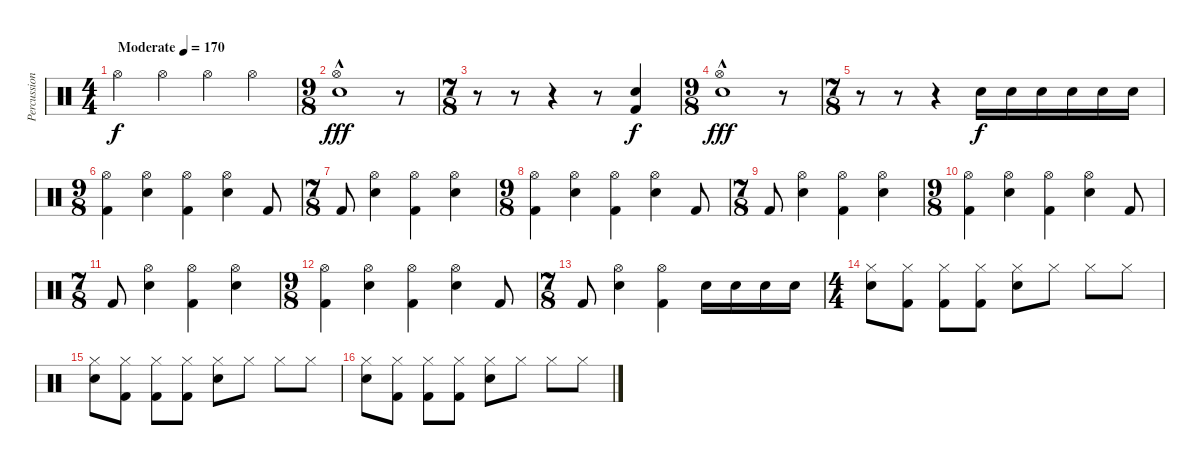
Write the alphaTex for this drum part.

\track ("Percussion" "Percussion") {instrument percussion}
\staff {score}
\articulation defaults
\ts (4 4)
\tempo (170 "Moderate")
\clef neutral
\ks c "Hi-Hat (open)".4{dy f} "Hi-Hat (open)".4 "Hi-Hat (open)".4 "Hi-Hat (open)".4
|
\ts (9 8)
("Snare (hit) 2" "Hi-Hat (open)"{hac}).1{dy fff} r.8 |
\ts (7 8)
r.8 r.8 r.4 r.8 ("Snare (hit) 2" "Kick (hit) 2").4{dy f} |
\ts (9 8)
("Snare (hit) 2" "Hi-Hat (open)"{hac}).1{dy fff} r.8 |
\ts (7 8)
r.8 r.8 r.4 "Snare (hit) 2".16{dy f} "Snare (hit) 2".16 "Snare (hit) 2".16 "Snare (hit) 2".16 "Snare (hit) 2".16 "Snare (hit) 2".16 |
\ts (9 8)
("Kick (hit) 2" "Hi-Hat (open)").4 ("Snare (hit) 2" "Hi-Hat (open)").4 ("Kick (hit) 2" "Hi-Hat (open)").4 ("Snare (hit) 2" "Hi-Hat (open)").4 "Kick (hit) 2".8 |
\ts (7 8)
"Kick (hit) 2".8 ("Snare (hit) 2" "Hi-Hat (open)").4 ("Kick (hit) 2" "Hi-Hat (open)").4 ("Snare (hit) 2" "Hi-Hat (open)").4 |
\ts (9 8)
("Kick (hit) 2" "Hi-Hat (open)").4 ("Snare (hit) 2" "Hi-Hat (open)").4 ("Kick (hit) 2" "Hi-Hat (open)").4 ("Snare (hit) 2" "Hi-Hat (open)").4 "Kick (hit) 2".8 |
\ts (7 8)
"Kick (hit) 2".8 ("Snare (hit) 2" "Hi-Hat (open)").4 ("Kick (hit) 2" "Hi-Hat (open)").4 ("Snare (hit) 2" "Hi-Hat (open)").4 |
\ts (9 8)
("Kick (hit) 2" "Hi-Hat (open)").4 ("Snare (hit) 2" "Hi-Hat (open)").4 ("Kick (hit) 2" "Hi-Hat (open)").4 ("Snare (hit) 2" "Hi-Hat (open)").4 "Kick (hit) 2".8 |
\ts (7 8)
"Kick (hit) 2".8 ("Snare (hit) 2" "Hi-Hat (open)").4 ("Kick (hit) 2" "Hi-Hat (open)").4 ("Snare (hit) 2" "Hi-Hat (open)").4 |
\ts (9 8)
("Kick (hit) 2" "Hi-Hat (open)").4 ("Snare (hit) 2" "Hi-Hat (open)").4 ("Kick (hit) 2" "Hi-Hat (open)").4 ("Snare (hit) 2" "Hi-Hat (open)").4 "Kick (hit) 2".8 |
\ts (7 8)
"Kick (hit) 2".8 ("Snare (hit) 2" "Hi-Hat (open)").4 ("Kick (hit) 2" "Hi-Hat (open)").4 "Snare (hit) 2".16 "Snare (hit) 2".16 "Snare (hit) 2".16 "Snare (hit) 2".16 |
\ts (4 4)
("Snare (hit) 2" "Hi-Hat (closed)").8 ("Kick (hit) 2" "Hi-Hat (closed)").8 ("Kick (hit) 2" "Hi-Hat (closed)").8 ("Kick (hit) 2" "Hi-Hat (closed)").8 ("Snare (hit) 2" "Hi-Hat (closed)").8 "Hi-Hat (closed)".8 "Hi-Hat (closed)".8 "Hi-Hat (closed)".8 |
("Snare (hit) 2" "Hi-Hat (closed)").8 ("Kick (hit) 2" "Hi-Hat (closed)").8 ("Kick (hit) 2" "Hi-Hat (closed)").8 ("Kick (hit) 2" "Hi-Hat (closed)").8 ("Snare (hit) 2" "Hi-Hat (closed)").8 "Hi-Hat (closed)".8 "Hi-Hat (closed)".8 "Hi-Hat (closed)".8 |
("Snare (hit) 2" "Hi-Hat (closed)").8 ("Kick (hit) 2" "Hi-Hat (closed)").8 ("Kick (hit) 2" "Hi-Hat (closed)").8 ("Kick (hit) 2" "Hi-Hat (closed)").8 ("Snare (hit) 2" "Hi-Hat (closed)").8 "Hi-Hat (closed)".8 "Hi-Hat (closed)".8 "Hi-Hat (closed)".8
